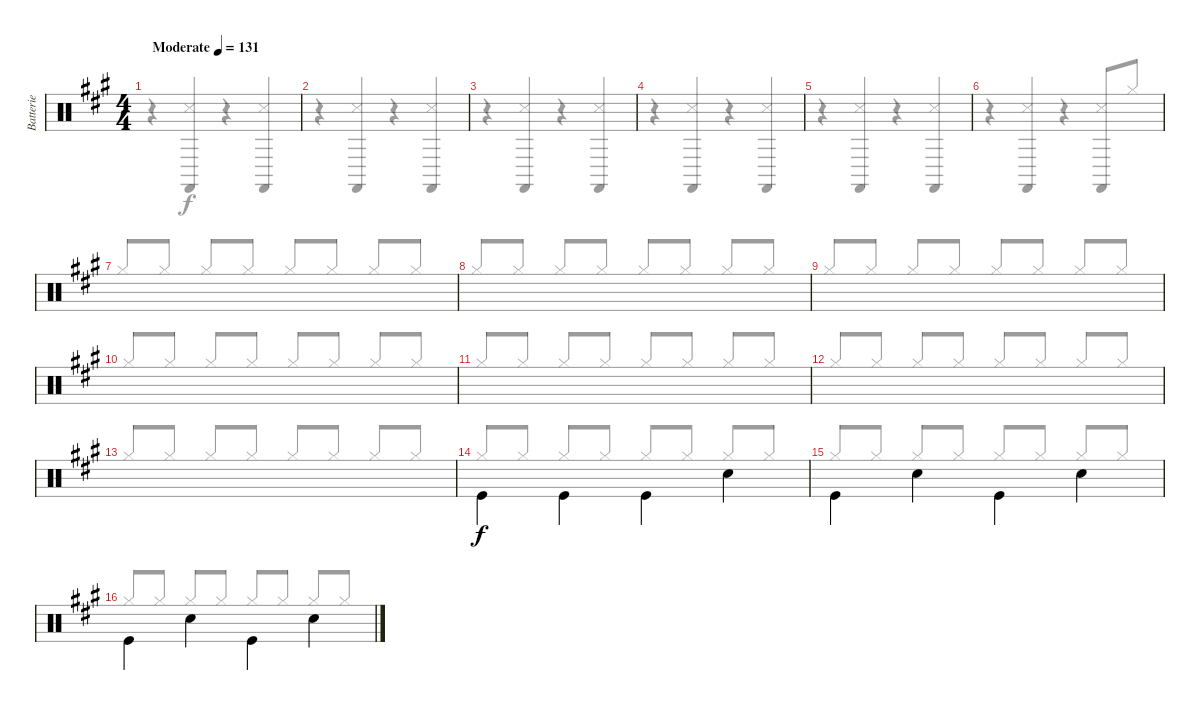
\track ("Batterie" "Batterie") {instrument percussion}
\staff {score}
\articulation defaults
\voice
\ts (4 4)
\tempo (131 "Moderate")
\clef neutral
\ks a
|
|
|
|
|
|
|
|
|
|
|
|
|
"Kick (hit)".4{beam Down} "Kick (hit)".4{beam Down} "Kick (hit)".4{beam Down} "Snare (hit) 2".4{beam Down} |
"Kick (hit)".4{beam Down} "Snare (hit) 2".4{beam Down} "Kick (hit)".4{beam Down} "Snare (hit) 2".4{beam Down} |
"Kick (hit)".4{beam Down} "Snare (hit) 2".4{beam Down} "Kick (hit)".4{beam Down} "Snare (hit) 2".4{beam Down}
\voice
\clef neutral
\ottava regular
\simile none
\ks a
r.4{dy f} ("Castanets (hit)" "Metronome (hit)").4{beam Up} r.4 ("Castanets (hit)" "Metronome (hit)").4{beam Up} |
r.4 ("Castanets (hit)" "Metronome (hit)").4{beam Up} r.4 ("Castanets (hit)" "Metronome (hit)").4{beam Up} |
r.4 ("Castanets (hit)" "Metronome (hit)").4{beam Up} r.4 ("Castanets (hit)" "Metronome (hit)").4{beam Up} |
r.4 ("Castanets (hit)" "Metronome (hit)").4{beam Up} r.4 ("Castanets (hit)" "Metronome (hit)").4{beam Up} |
r.4 ("Castanets (hit)" "Metronome (hit)").4{beam Up} r.4 ("Castanets (hit)" "Metronome (hit)").4{beam Up} |
r.4 ("Castanets (hit)" "Metronome (hit)").4{beam Up} r.4 ("Castanets (hit)" "Metronome (hit)").8{beam Up} "Hi-Hat (closed)".8{beam Up} |
"Hi-Hat (closed)".8{beam Up} "Hi-Hat (closed)".8{beam Up} "Hi-Hat (closed)".8{beam Up} "Hi-Hat (closed)".8{beam Up} "Hi-Hat (closed)".8{beam Up} "Hi-Hat (closed)".8{beam Up} "Hi-Hat (closed)".8{beam Up} "Hi-Hat (closed)".8{beam Up} |
"Hi-Hat (closed)".8{beam Up} "Hi-Hat (closed)".8{beam Up} "Hi-Hat (closed)".8{beam Up} "Hi-Hat (closed)".8{beam Up} "Hi-Hat (closed)".8{beam Up} "Hi-Hat (closed)".8{beam Up} "Hi-Hat (closed)".8{beam Up} "Hi-Hat (closed)".8{beam Up} |
"Hi-Hat (closed)".8{beam Up} "Hi-Hat (closed)".8{beam Up} "Hi-Hat (closed)".8{beam Up} "Hi-Hat (closed)".8{beam Up} "Hi-Hat (closed)".8{beam Up} "Hi-Hat (closed)".8{beam Up} "Hi-Hat (closed)".8{beam Up} "Hi-Hat (closed)".8{beam Up} |
"Hi-Hat (closed)".8{beam Up} "Hi-Hat (closed)".8{beam Up} "Hi-Hat (closed)".8{beam Up} "Hi-Hat (closed)".8{beam Up} "Hi-Hat (closed)".8{beam Up} "Hi-Hat (closed)".8{beam Up} "Hi-Hat (closed)".8{beam Up} "Hi-Hat (closed)".8{beam Up} |
"Hi-Hat (closed)".8{beam Up} "Hi-Hat (closed)".8{beam Up} "Hi-Hat (closed)".8{beam Up} "Hi-Hat (closed)".8{beam Up} "Hi-Hat (closed)".8{beam Up} "Hi-Hat (closed)".8{beam Up} "Hi-Hat (closed)".8{beam Up} "Hi-Hat (closed)".8{beam Up} |
"Hi-Hat (closed)".8{beam Up} "Hi-Hat (closed)".8{beam Up} "Hi-Hat (closed)".8{beam Up} "Hi-Hat (closed)".8{beam Up} "Hi-Hat (closed)".8{beam Up} "Hi-Hat (closed)".8{beam Up} "Hi-Hat (closed)".8{beam Up} "Hi-Hat (closed)".8{beam Up} |
"Hi-Hat (closed)".8{beam Up} "Hi-Hat (closed)".8{beam Up} "Hi-Hat (closed)".8{beam Up} "Hi-Hat (closed)".8{beam Up} "Hi-Hat (closed)".8{beam Up} "Hi-Hat (closed)".8{beam Up} "Hi-Hat (closed)".8{beam Up} "Hi-Hat (closed)".8{beam Up} |
"Hi-Hat (closed)".8{beam Up} "Hi-Hat (closed)".8{beam Up} "Hi-Hat (closed)".8{beam Up} "Hi-Hat (closed)".8{beam Up} "Hi-Hat (closed)".8{beam Up} "Hi-Hat (closed)".8{beam Up} "Hi-Hat (closed)".8{beam Up} "Hi-Hat (closed)".8{beam Up} |
"Hi-Hat (closed)".8{beam Up} "Hi-Hat (closed)".8{beam Up} "Hi-Hat (closed)".8{beam Up} "Hi-Hat (closed)".8{beam Up} "Hi-Hat (closed)".8{beam Up} "Hi-Hat (closed)".8{beam Up} "Hi-Hat (closed)".8{beam Up} "Hi-Hat (closed)".8{beam Up} |
"Hi-Hat (closed)".8{beam Up} "Hi-Hat (closed)".8{beam Up} "Hi-Hat (closed)".8{beam Up} "Hi-Hat (closed)".8{beam Up} "Hi-Hat (closed)".8{beam Up} "Hi-Hat (closed)".8{beam Up} "Hi-Hat (closed)".8{beam Up} "Hi-Hat (closed)".8{beam Up}
